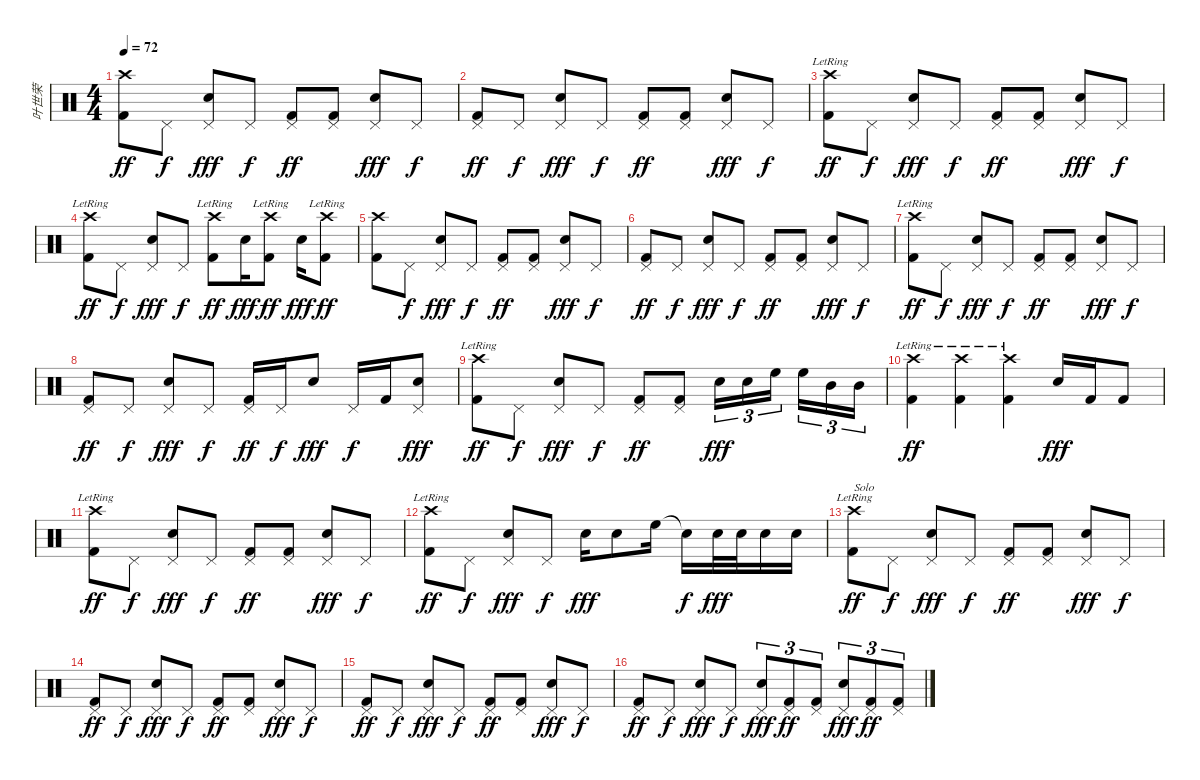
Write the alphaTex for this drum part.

\track ("叶世荣" "叶世荣") {instrument percussion}
\staff {score}
\articulation defaults
\ts (4 4)
\tempo 72
\clef neutral
\ks c
("Crash high (hit)" "Kick (hit) 2").8{dy ff} "Pedal Hi-Hat (hit)".8{dy f} ("Pedal Hi-Hat (hit)" "Electric Snare (hit)").8{dy fff} "Pedal Hi-Hat (hit)".8{dy f} ("Pedal Hi-Hat (hit)" "Kick (hit) 2").8{dy ff} ("Pedal Hi-Hat (hit)" "Kick (hit) 2").8 ("Pedal Hi-Hat (hit)" "Electric Snare (hit)").8{dy fff} "Pedal Hi-Hat (hit)".8{dy f} |
("Pedal Hi-Hat (hit)" "Kick (hit) 2").8{dy ff} "Pedal Hi-Hat (hit)".8{dy f} ("Pedal Hi-Hat (hit)" "Electric Snare (hit)").8{dy fff} "Pedal Hi-Hat (hit)".8{dy f} ("Pedal Hi-Hat (hit)" "Kick (hit) 2").8{dy ff} ("Pedal Hi-Hat (hit)" "Kick (hit) 2").8 ("Pedal Hi-Hat (hit)" "Electric Snare (hit)").8{dy fff} "Pedal Hi-Hat (hit)".8{dy f} |
("Crash high (hit)"{lr} "Kick (hit) 2").8{dy ff} "Pedal Hi-Hat (hit)".8{dy f} ("Pedal Hi-Hat (hit)" "Electric Snare (hit)").8{dy fff} "Pedal Hi-Hat (hit)".8{dy f} ("Pedal Hi-Hat (hit)" "Kick (hit) 2").8{dy ff} ("Pedal Hi-Hat (hit)" "Kick (hit) 2").8 ("Pedal Hi-Hat (hit)" "Electric Snare (hit)").8{dy fff} "Pedal Hi-Hat (hit)".8{dy f} |
("Crash high (hit)"{lr} "Kick (hit) 2").8{dy ff} "Pedal Hi-Hat (hit)".8{dy f} ("Pedal Hi-Hat (hit)" "Electric Snare (hit)").8{dy fff} "Pedal Hi-Hat (hit)".8{dy f} ("Crash high (hit)"{lr} "Kick (hit) 2").8{dy ff} "Electric Snare (hit)".16{dy fff} ("Crash high (hit)"{lr} "Kick (hit) 2").8{dy ff} "Electric Snare (hit)".16{dy fff} ("Crash high (hit)"{lr} "Kick (hit) 2").8{dy ff} |
("Crash high (hit)" "Kick (hit) 2").8 "Pedal Hi-Hat (hit)".8{dy f} ("Pedal Hi-Hat (hit)" "Electric Snare (hit)").8{dy fff} "Pedal Hi-Hat (hit)".8{dy f} ("Pedal Hi-Hat (hit)" "Kick (hit) 2").8{dy ff} ("Pedal Hi-Hat (hit)" "Kick (hit) 2").8 ("Pedal Hi-Hat (hit)" "Electric Snare (hit)").8{dy fff} "Pedal Hi-Hat (hit)".8{dy f} |
("Pedal Hi-Hat (hit)" "Kick (hit) 2").8{dy ff} "Pedal Hi-Hat (hit)".8{dy f} ("Pedal Hi-Hat (hit)" "Electric Snare (hit)").8{dy fff} "Pedal Hi-Hat (hit)".8{dy f} ("Pedal Hi-Hat (hit)" "Kick (hit) 2").8{dy ff} ("Pedal Hi-Hat (hit)" "Kick (hit) 2").8 ("Pedal Hi-Hat (hit)" "Electric Snare (hit)").8{dy fff} "Pedal Hi-Hat (hit)".8{dy f} |
("Crash high (hit)"{lr} "Kick (hit) 2").8{dy ff} "Pedal Hi-Hat (hit)".8{dy f} ("Pedal Hi-Hat (hit)" "Electric Snare (hit)").8{dy fff} "Pedal Hi-Hat (hit)".8{dy f} ("Pedal Hi-Hat (hit)" "Kick (hit) 2").8{dy ff} ("Pedal Hi-Hat (hit)" "Kick (hit) 2").8 ("Pedal Hi-Hat (hit)" "Electric Snare (hit)").8{dy fff} "Pedal Hi-Hat (hit)".8{dy f} |
("Pedal Hi-Hat (hit)" "Kick (hit) 2").8{dy ff} "Pedal Hi-Hat (hit)".8{dy f} ("Pedal Hi-Hat (hit)" "Electric Snare (hit)").8{dy fff} "Pedal Hi-Hat (hit)".8{dy f} ("Pedal Hi-Hat (hit)" "Kick (hit) 2").16{dy ff} "Pedal Hi-Hat (hit)".16{dy f} "Electric Snare (hit)".8{dy fff} "Pedal Hi-Hat (hit)".16{dy f} "Kick (hit) 2".16 ("Pedal Hi-Hat (hit)" "Electric Snare (hit)").8{dy fff} |
("Crash high (hit)"{lr} "Kick (hit) 2").8{dy ff} "Pedal Hi-Hat (hit)".8{dy f} ("Pedal Hi-Hat (hit)" "Electric Snare (hit)").8{dy fff} "Pedal Hi-Hat (hit)".8{dy f} ("Pedal Hi-Hat (hit)" "Kick (hit) 2").8{dy ff} ("Pedal Hi-Hat (hit)" "Kick (hit) 2").8 "Electric Snare (hit)".16{tu (3 2) dy fff} "Electric Snare (hit)".16{tu (3 2)} "High Floor Tom (hit)".16{tu (3 2)} "High Floor Tom (hit)".16{tu (3 2)} "Mid Tom (hit)".16{tu (3 2)} "Mid Tom (hit)".16{tu (3 2)} |
("Crash high (hit)"{lr} "Kick (hit) 2").4{dy ff} ("Crash high (hit)"{lr} "Kick (hit) 2").4 ("Crash high (hit)"{lr} "Kick (hit) 2").4 "Electric Snare (hit)".16{dy fff} "Kick (hit) 2".16 "Kick (hit) 2".8 |
("Crash high (hit)"{lr} "Kick (hit) 2").8{dy ff} "Pedal Hi-Hat (hit)".8{dy f} ("Pedal Hi-Hat (hit)" "Electric Snare (hit)").8{dy fff} "Pedal Hi-Hat (hit)".8{dy f} ("Pedal Hi-Hat (hit)" "Kick (hit) 2").8{dy ff} ("Pedal Hi-Hat (hit)" "Kick (hit) 2").8 ("Pedal Hi-Hat (hit)" "Electric Snare (hit)").8{dy fff} "Pedal Hi-Hat (hit)".8{dy f} |
("Crash high (hit)"{lr} "Kick (hit) 2").8{dy ff} "Pedal Hi-Hat (hit)".8{dy f} ("Pedal Hi-Hat (hit)" "Electric Snare (hit)").8{dy fff} "Pedal Hi-Hat (hit)".8{dy f} "Electric Snare (hit)".16{dy fff} "Electric Snare (hit)".8 "High Floor Tom (hit)".16 "Snare (hit)"{t}.16{dy f} "Electric Snare (hit)".32{dy fff} "Electric Snare (hit)".32 "Electric Snare (hit)".16 "Electric Snare (hit)".16 |
("Crash high (hit)"{lr} "Kick (hit) 2").8{txt "Solo" dy ff} "Pedal Hi-Hat (hit)".8{dy f} ("Pedal Hi-Hat (hit)" "Electric Snare (hit)").8{dy fff} "Pedal Hi-Hat (hit)".8{dy f} ("Pedal Hi-Hat (hit)" "Kick (hit) 2").8{dy ff} ("Pedal Hi-Hat (hit)" "Kick (hit) 2").8 ("Pedal Hi-Hat (hit)" "Electric Snare (hit)").8{dy fff} "Pedal Hi-Hat (hit)".8{dy f} |
("Pedal Hi-Hat (hit)" "Kick (hit) 2").8{dy ff} "Pedal Hi-Hat (hit)".8{dy f} ("Pedal Hi-Hat (hit)" "Electric Snare (hit)").8{dy fff} "Pedal Hi-Hat (hit)".8{dy f} ("Pedal Hi-Hat (hit)" "Kick (hit) 2").8{dy ff} ("Pedal Hi-Hat (hit)" "Kick (hit) 2").8 ("Pedal Hi-Hat (hit)" "Electric Snare (hit)").8{dy fff} "Pedal Hi-Hat (hit)".8{dy f} |
("Pedal Hi-Hat (hit)" "Kick (hit) 2").8{dy ff} "Pedal Hi-Hat (hit)".8{dy f} ("Pedal Hi-Hat (hit)" "Electric Snare (hit)").8{dy fff} "Pedal Hi-Hat (hit)".8{dy f} ("Pedal Hi-Hat (hit)" "Kick (hit) 2").8{dy ff} ("Pedal Hi-Hat (hit)" "Kick (hit) 2").8 ("Pedal Hi-Hat (hit)" "Electric Snare (hit)").8{dy fff} "Pedal Hi-Hat (hit)".8{dy f} |
("Pedal Hi-Hat (hit)" "Kick (hit) 2").8{dy ff} "Pedal Hi-Hat (hit)".8{dy f} ("Pedal Hi-Hat (hit)" "Electric Snare (hit)").8{dy fff} "Pedal Hi-Hat (hit)".8{dy f} ("Pedal Hi-Hat (hit)" "Electric Snare (hit)").8{tu (3 2) dy fff} ("Pedal Hi-Hat (hit)" "Kick (hit) 2").8{tu (3 2) dy ff} ("Pedal Hi-Hat (hit)" "Kick (hit) 2").8{tu (3 2)} ("Pedal Hi-Hat (hit)" "Electric Snare (hit)").8{tu (3 2) dy fff} ("Pedal Hi-Hat (hit)" "Kick (hit) 2").8{tu (3 2) dy ff} ("Pedal Hi-Hat (hit)" "Kick (hit) 2").8{tu (3 2)}
